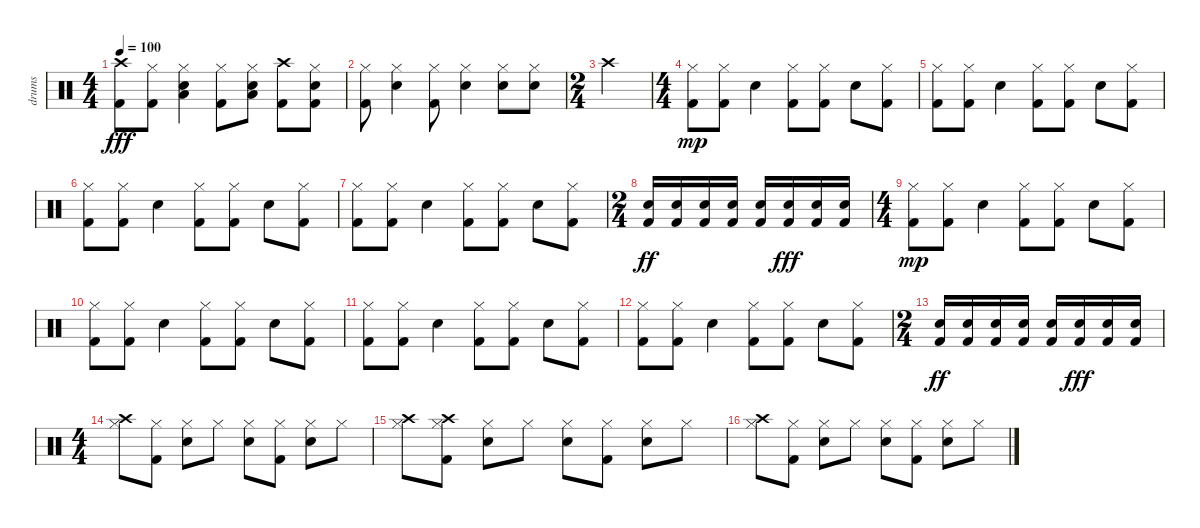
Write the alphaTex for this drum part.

\track ("drums" "drums") {instrument percussion}
\staff {score}
\articulation defaults
\ts (4 4)
\tempo 100
\clef neutral
\ks c
("Crash high (hit)" "Kick (hit) 2").8{dy fff} ("Hi-Hat (closed)" "Kick (hit) 2").8 ("Hi-Hat (closed)" "Low Floor Tom (hit)" "Electric Snare (hit)").4 ("Hi-Hat (closed)" "Kick (hit) 2").8 ("Hi-Hat (closed)" "Low Floor Tom (hit)" "Electric Snare (hit)").8 ("Crash high (hit)" "Kick (hit) 2").8 ("Hi-Hat (closed)" "Electric Snare (hit)" "Kick (hit) 2").8 |
("Hi-Hat (closed)" "Kick (hit) 2").8 ("Hi-Hat (closed)" "Electric Snare (hit)").4 ("Hi-Hat (closed)" "Kick (hit) 2").8 ("Hi-Hat (closed)" "Electric Snare (hit)").4 ("Hi-Hat (closed)" "Electric Snare (hit)").8 ("Hi-Hat (closed)" "Electric Snare (hit)").8 |
\ts (2 4)
"Crash high (hit)".2 |
\ts (4 4)
("Hi-Hat (closed)" "Kick (hit) 2").8{dy mp} ("Hi-Hat (closed)" "Kick (hit) 2").8 "Electric Snare (hit)".4 ("Hi-Hat (closed)" "Kick (hit) 2").8 ("Hi-Hat (closed)" "Kick (hit) 2").8 "Electric Snare (hit)".8 ("Hi-Hat (closed)" "Kick (hit) 2").8 |
("Hi-Hat (closed)" "Kick (hit) 2").8 ("Hi-Hat (closed)" "Kick (hit) 2").8 "Electric Snare (hit)".4 ("Hi-Hat (closed)" "Kick (hit) 2").8 ("Hi-Hat (closed)" "Kick (hit) 2").8 "Electric Snare (hit)".8 ("Hi-Hat (closed)" "Kick (hit) 2").8 |
("Hi-Hat (closed)" "Kick (hit) 2").8 ("Hi-Hat (closed)" "Kick (hit) 2").8 "Electric Snare (hit)".4 ("Hi-Hat (closed)" "Kick (hit) 2").8 ("Hi-Hat (closed)" "Kick (hit) 2").8 "Electric Snare (hit)".8 ("Hi-Hat (closed)" "Kick (hit) 2").8 |
("Hi-Hat (closed)" "Kick (hit) 2").8 ("Hi-Hat (closed)" "Kick (hit) 2").8 "Electric Snare (hit)".4 ("Hi-Hat (closed)" "Kick (hit) 2").8 ("Hi-Hat (closed)" "Kick (hit) 2").8 "Electric Snare (hit)".8 ("Hi-Hat (closed)" "Kick (hit) 2").8 |
\ts (2 4)
("Electric Snare (hit)" "Kick (hit) 2").16{dy ff} ("Electric Snare (hit)" "Kick (hit) 2").16 ("Electric Snare (hit)" "Kick (hit) 2").16 ("Electric Snare (hit)" "Kick (hit) 2").16 ("Electric Snare (hit)" "Kick (hit) 2").16 ("Electric Snare (hit)" "Kick (hit) 2").16{dy fff} ("Electric Snare (hit)" "Kick (hit) 2").16 ("Electric Snare (hit)" "Kick (hit) 2").16 |
\ts (4 4)
("Hi-Hat (closed)" "Kick (hit) 2").8{dy mp} ("Hi-Hat (closed)" "Kick (hit) 2").8 "Electric Snare (hit)".4 ("Hi-Hat (closed)" "Kick (hit) 2").8 ("Hi-Hat (closed)" "Kick (hit) 2").8 "Electric Snare (hit)".8 ("Hi-Hat (closed)" "Kick (hit) 2").8 |
("Hi-Hat (closed)" "Kick (hit) 2").8 ("Hi-Hat (closed)" "Kick (hit) 2").8 "Electric Snare (hit)".4 ("Hi-Hat (closed)" "Kick (hit) 2").8 ("Hi-Hat (closed)" "Kick (hit) 2").8 "Electric Snare (hit)".8 ("Hi-Hat (closed)" "Kick (hit) 2").8 |
("Hi-Hat (closed)" "Kick (hit) 2").8 ("Hi-Hat (closed)" "Kick (hit) 2").8 "Electric Snare (hit)".4 ("Hi-Hat (closed)" "Kick (hit) 2").8 ("Hi-Hat (closed)" "Kick (hit) 2").8 "Electric Snare (hit)".8 ("Hi-Hat (closed)" "Kick (hit) 2").8 |
("Hi-Hat (closed)" "Kick (hit) 2").8 ("Hi-Hat (closed)" "Kick (hit) 2").8 "Electric Snare (hit)".4 ("Hi-Hat (closed)" "Kick (hit) 2").8 ("Hi-Hat (closed)" "Kick (hit) 2").8 "Electric Snare (hit)".8 ("Hi-Hat (closed)" "Kick (hit) 2").8 |
\ts (2 4)
("Electric Snare (hit)" "Kick (hit) 2").16{dy ff} ("Electric Snare (hit)" "Kick (hit) 2").16 ("Electric Snare (hit)" "Kick (hit) 2").16 ("Electric Snare (hit)" "Kick (hit) 2").16 ("Electric Snare (hit)" "Kick (hit) 2").16 ("Electric Snare (hit)" "Kick (hit) 2").16{dy fff} ("Electric Snare (hit)" "Kick (hit) 2").16 ("Electric Snare (hit)" "Kick (hit) 2").16 |
\ts (4 4)
("Crash high (hit)" "Hi-Hat (closed)").8 ("Hi-Hat (closed)" "Kick (hit) 2").8 ("Hi-Hat (closed)" "Electric Snare (hit)").8 "Hi-Hat (closed)".8 ("Hi-Hat (closed)" "Electric Snare (hit)").8 ("Hi-Hat (closed)" "Kick (hit) 2").8 ("Hi-Hat (closed)" "Electric Snare (hit)").8 "Hi-Hat (closed)".8 |
("Crash high (hit)" "Hi-Hat (closed)").8 ("Crash high (hit)" "Hi-Hat (closed)" "Kick (hit) 2").8 ("Hi-Hat (closed)" "Electric Snare (hit)").8 "Hi-Hat (closed)".8 ("Hi-Hat (closed)" "Electric Snare (hit)").8 ("Hi-Hat (closed)" "Kick (hit) 2").8 ("Hi-Hat (closed)" "Electric Snare (hit)").8 "Hi-Hat (closed)".8 |
("Crash high (hit)" "Hi-Hat (closed)").8 ("Hi-Hat (closed)" "Kick (hit) 2").8 ("Hi-Hat (closed)" "Electric Snare (hit)").8 "Hi-Hat (closed)".8 ("Hi-Hat (closed)" "Electric Snare (hit)").8 ("Hi-Hat (closed)" "Kick (hit) 2").8 ("Hi-Hat (closed)" "Electric Snare (hit)").8 "Hi-Hat (closed)".8
